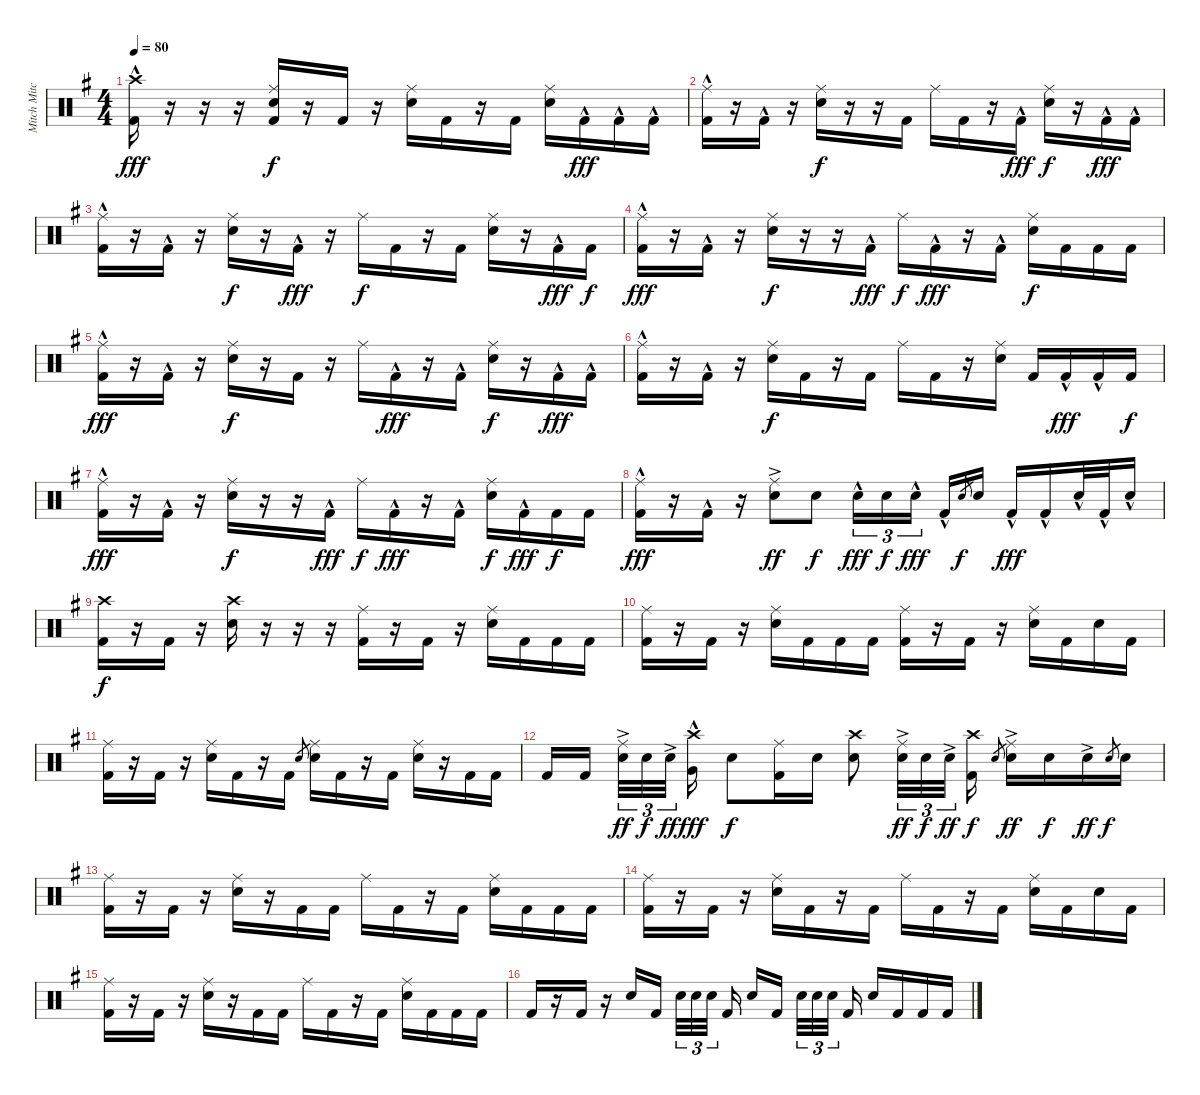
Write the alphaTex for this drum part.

\track ("Mitch Mitchell" "Mitch Mitc") {instrument percussion}
\staff {score}
\articulation defaults
\ts (4 4)
\tempo 80
\clef neutral
\ks eminor
("Crash high (hit)" "Kick (hit) 2"{hac}).16{dy fff} r.16 r.16 r.16 ("Ride (middle)" "Electric Snare (hit)" "Kick (hit) 2").16{dy f} r.16 "Kick (hit) 2".16 r.16 ("Ride (middle)" "Electric Snare (hit)").16 "Kick (hit) 2".16 r.16 "Kick (hit) 2".16 ("Ride (middle)" "Electric Snare (hit)").16 "Kick (hit) 2"{hac}.16{dy fff} "Kick (hit) 2"{hac}.16 "Kick (hit) 2"{hac}.16 |
("Ride (middle)" "Kick (hit) 2"{hac}).16 r.16 "Kick (hit) 2"{hac}.16 r.16 ("Ride (middle)" "Electric Snare (hit)").16{dy f} r.16 r.16 "Kick (hit) 2".16 "Ride (middle)".16 "Kick (hit) 2".16 r.16 "Kick (hit) 2"{hac}.16{dy fff} ("Ride (middle)" "Electric Snare (hit)").16{dy f} r.16 "Kick (hit) 2"{hac}.16{dy fff} "Kick (hit) 2"{hac}.16 |
("Ride (middle)" "Kick (hit) 2"{hac}).16 r.16 "Kick (hit) 2"{hac}.16 r.16 ("Ride (middle)" "Electric Snare (hit)").16{dy f} r.16 "Kick (hit) 2"{hac}.16{dy fff} r.16 "Ride (middle)".16{dy f} "Kick (hit) 2".16 r.16 "Kick (hit) 2".16 ("Ride (middle)" "Electric Snare (hit)").16 r.16 "Kick (hit) 2"{hac}.16{dy fff} "Kick (hit) 2".16{dy f} |
("Ride (middle)" "Kick (hit) 2"{hac}).16{dy fff} r.16 "Kick (hit) 2"{hac}.16 r.16 ("Ride (middle)" "Electric Snare (hit)").16{dy f} r.16 r.16 "Kick (hit) 2"{hac}.16{dy fff} "Ride (middle)".16{dy f} "Kick (hit) 2"{hac}.16{dy fff} r.16 "Kick (hit) 2"{hac}.16 ("Ride (middle)" "Electric Snare (hit)").16{dy f} "Kick (hit) 2".16 "Kick (hit) 2".16 "Kick (hit) 2".16 |
("Ride (middle)" "Kick (hit) 2"{hac}).16{dy fff} r.16 "Kick (hit) 2"{hac}.16 r.16 ("Ride (middle)" "Electric Snare (hit)").16{dy f} r.16 "Kick (hit) 2".16 r.16 "Ride (middle)".16 "Kick (hit) 2"{hac}.16{dy fff} r.16 "Kick (hit) 2"{hac}.16 ("Ride (middle)" "Electric Snare (hit)").16{dy f} r.16 "Kick (hit) 2"{hac}.16{dy fff} "Kick (hit) 2"{hac}.16 |
("Ride (middle)" "Kick (hit) 2"{hac}).16 r.16 "Kick (hit) 2"{hac}.16 r.16 ("Ride (middle)" "Electric Snare (hit)").16{dy f} "Kick (hit) 2".16 r.16 "Kick (hit) 2".16 "Ride (middle)".16 "Kick (hit) 2".16 r.16 ("Ride (middle)" "Electric Snare (hit)").16 "Kick (hit) 2".16 "Kick (hit) 2"{hac}.16{dy fff} "Kick (hit) 2"{hac}.16 "Kick (hit) 2".16{dy f} |
("Ride (middle)" "Kick (hit) 2"{hac}).16{dy fff} r.16 "Kick (hit) 2"{hac}.16 r.16 ("Ride (middle)" "Electric Snare (hit)").16{dy f} r.16 r.16 "Kick (hit) 2"{hac}.16{dy fff} "Ride (middle)".16{dy f} "Kick (hit) 2"{hac}.16{dy fff} r.16 "Kick (hit) 2"{hac}.16 ("Ride (middle)" "Electric Snare (hit)").16{dy f} "Kick (hit) 2"{hac}.16{dy fff} "Kick (hit) 2".16{dy f} "Kick (hit) 2".16 |
("Ride (middle)" "Kick (hit) 2"{hac}).16{dy fff} r.16 "Kick (hit) 2"{hac}.16 r.16 ("Ride (middle)" "Electric Snare (hit)"{ac}).8{dy ff} "Electric Snare (hit)".8{dy f} "Electric Snare (hit)"{hac}.16{tu (3 2) dy fff} "Electric Snare (hit)".16{tu (3 2) dy f} "Electric Snare (hit)"{hac}.16{tu (3 2) dy fff beam splitsecondary} "Kick (hit) 2"{hac}.16 "Electric Snare (hit)".8{gr dy f} "Electric Snare (hit)".16 "Kick (hit) 2"{hac}.16{dy fff} "Kick (hit) 2"{hac}.16 "Electric Snare (hit)"{hac}.32 "Kick (hit) 2"{hac}.32 "Electric Snare (hit)"{hac}.16 |
("Crash high (hit)" "Kick (hit) 2").16{dy f} r.16 "Kick (hit) 2".16 r.16 ("Crash high (hit)" "Electric Snare (hit)").16 r.16 r.16 r.16 ("Ride (middle)" "Kick (hit) 2").16 r.16 "Kick (hit) 2".16 r.16 ("Ride (middle)" "Electric Snare (hit)").16 "Kick (hit) 2".16 "Kick (hit) 2".16 "Kick (hit) 2".16 |
("Ride (middle)" "Kick (hit) 2").16 r.16 "Kick (hit) 2".16 r.16 ("Ride (middle)" "Electric Snare (hit)").16 "Kick (hit) 2".16 "Kick (hit) 2".16 "Kick (hit) 2".16 ("Ride (middle)" "Kick (hit) 2").16 r.16 "Kick (hit) 2".16 r.16 ("Ride (middle)" "Electric Snare (hit)").16 "Kick (hit) 2".16 "Electric Snare (hit)".16 "Kick (hit) 2".16 |
("Ride (middle)" "Kick (hit) 2").16 r.16 "Kick (hit) 2".16 r.16 ("Ride (middle)" "Electric Snare (hit)").16 "Kick (hit) 2".16 r.16 "Kick (hit) 2".16 "Electric Snare (hit)".8{gr} ("Ride (middle)" "Electric Snare (hit)").16 "Kick (hit) 2".16 r.16 "Kick (hit) 2".16 ("Ride (middle)" "Electric Snare (hit)").16 r.16 "Kick (hit) 2".16 "Kick (hit) 2".16 |
"Kick (hit) 2".16 "Kick (hit) 2".16{beam splitsecondary} ("Ride (middle)" "Electric Snare (hit)"{ac}).32{tu (3 2) dy ff} "Electric Snare (hit)".32{tu (3 2) dy f} "Electric Snare (hit)"{ac}.32{tu (3 2) dy ff beam splitsecondary} ("Crash high (hit)" "Very Low Tom (hit)"{hac}).16{dy fff} "Electric Snare (hit)".8{dy f} ("Ride (middle)" "Kick (hit) 2").16 "Electric Snare (hit)".16 ("Crash high (hit)" "Electric Snare (hit)").8 ("Ride (middle)" "Electric Snare (hit)"{ac}).32{tu (3 2) dy ff} "Electric Snare (hit)".32{tu (3 2) dy f} "Electric Snare (hit)"{ac}.32{tu (3 2) dy ff beam splitsecondary} ("Crash high (hit)" "Kick (hit) 2").16{dy f} "Electric Snare (hit)".8{gr} ("Ride (middle)" "Electric Snare (hit)"{ac}).16{dy ff} "Electric Snare (hit)".16{dy f} "Electric Snare (hit)"{ac}.16{dy ff} "Electric Snare (hit)".8{gr dy f} "Electric Snare (hit)".16 |
("Ride (middle)" "Kick (hit) 2").16 r.16 "Kick (hit) 2".16 r.16 ("Ride (middle)" "Electric Snare (hit)").16 r.16 "Kick (hit) 2".16 "Kick (hit) 2".16 "Ride (middle)".16 "Kick (hit) 2".16 r.16 "Kick (hit) 2".16 ("Ride (middle)" "Electric Snare (hit)").16 "Kick (hit) 2".16 "Kick (hit) 2".16 "Kick (hit) 2".16 |
("Ride (middle)" "Kick (hit) 2").16 r.16 "Kick (hit) 2".16 r.16 ("Ride (middle)" "Electric Snare (hit)").16 "Kick (hit) 2".16 r.16 "Kick (hit) 2".16 "Ride (middle)".16 "Kick (hit) 2".16 r.16 "Kick (hit) 2".16 ("Ride (middle)" "Electric Snare (hit)").16 "Kick (hit) 2".16 "Electric Snare (hit)".16 "Kick (hit) 2".16 |
("Ride (middle)" "Kick (hit) 2").16 r.16 "Kick (hit) 2".16 r.16 ("Ride (middle)" "Electric Snare (hit)").16 r.16 "Kick (hit) 2".16 "Kick (hit) 2".16 "Ride (middle)".16 "Kick (hit) 2".16 r.16 "Kick (hit) 2".16 ("Ride (middle)" "Electric Snare (hit)").16 "Kick (hit) 2".16 "Kick (hit) 2".16 "Kick (hit) 2".16 |
"Kick (hit) 2".16 r.16 "Kick (hit) 2".16 r.16 "Electric Snare (hit)".16 "Kick (hit) 2".16{beam splitsecondary} "Electric Snare (hit)".32{tu (3 2)} "Electric Snare (hit)".32{tu (3 2)} "Electric Snare (hit)".32{tu (3 2) beam splitsecondary} "Kick (hit) 2".16 "Electric Snare (hit)".16 "Kick (hit) 2".16{beam splitsecondary} "Electric Snare (hit)".32{tu (3 2)} "Electric Snare (hit)".32{tu (3 2)} "Electric Snare (hit)".32{tu (3 2) beam splitsecondary} "Kick (hit) 2".16 "Electric Snare (hit)".16 "Kick (hit) 2".16 "Kick (hit) 2".16 "Kick (hit) 2".16
